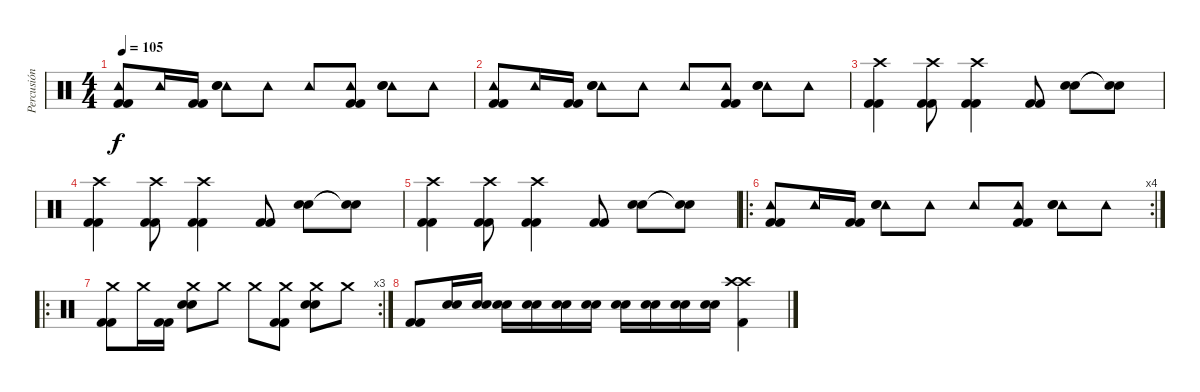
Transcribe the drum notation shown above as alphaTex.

\track ("Percusión" "Percusión") {instrument percussion}
\staff {score}
\articulation defaults
\ts (4 4)
\tempo 105
\clef neutral
\ks c
("Tambourine (hit)" "Kick (hit) 2" "Kick (hit) 2").8{dy f} "Tambourine (hit)".16 ("Kick (hit) 2" "Kick (hit) 2").16 ("Tambourine (hit)" "Electric Snare (hit)" "Electric Snare (hit)").8 "Tambourine (hit)".8 "Tambourine (hit)".8 ("Tambourine (hit)" "Kick (hit) 2" "Kick (hit) 2").8 ("Tambourine (hit)" "Electric Snare (hit)" "Electric Snare (hit)").8 "Tambourine (hit)".8 |
("Tambourine (hit)" "Kick (hit) 2" "Kick (hit) 2").8 "Tambourine (hit)".16 ("Kick (hit) 2" "Kick (hit) 2").16 ("Tambourine (hit)" "Electric Snare (hit)" "Electric Snare (hit)").8 "Tambourine (hit)".8 "Tambourine (hit)".8 ("Tambourine (hit)" "Kick (hit) 2" "Kick (hit) 2").8 ("Tambourine (hit)" "Electric Snare (hit)" "Electric Snare (hit)").8 "Tambourine (hit)".8 |
("Crash high (hit)" "Kick (hit) 2" "Kick (hit) 2").4 ("Crash high (hit)" "Kick (hit) 2" "Kick (hit) 2").8 ("Crash high (hit)" "Kick (hit) 2" "Kick (hit) 2").4 ("Kick (hit) 2" "Kick (hit) 2").8 ("Electric Snare (hit)" "Electric Snare (hit)").8 ("Snare (hit)"{t} "Snare (hit)"{t}).8 |
("Crash high (hit)" "Kick (hit) 2" "Kick (hit) 2").4 ("Crash high (hit)" "Kick (hit) 2" "Kick (hit) 2").8 ("Crash high (hit)" "Kick (hit) 2" "Kick (hit) 2").4 ("Kick (hit) 2" "Kick (hit) 2").8 ("Electric Snare (hit)" "Electric Snare (hit)").8 ("Snare (hit)"{t} "Snare (hit)"{t}).8 |
("Crash high (hit)" "Kick (hit) 2" "Kick (hit) 2").4 ("Crash high (hit)" "Kick (hit) 2" "Kick (hit) 2").8 ("Crash high (hit)" "Kick (hit) 2" "Kick (hit) 2").4 ("Kick (hit) 2" "Kick (hit) 2").8 ("Electric Snare (hit)" "Electric Snare (hit)").8 ("Snare (hit)"{t} "Snare (hit)"{t}).8 |
\ro
\rc 4
("Tambourine (hit)" "Kick (hit) 2" "Kick (hit) 2").8 "Tambourine (hit)".16 ("Kick (hit) 2" "Kick (hit) 2").16 ("Tambourine (hit)" "Electric Snare (hit)" "Electric Snare (hit)").8 "Tambourine (hit)".8 "Tambourine (hit)".8 ("Tambourine (hit)" "Kick (hit) 2" "Kick (hit) 2").8 ("Tambourine (hit)" "Electric Snare (hit)" "Electric Snare (hit)").8 "Tambourine (hit)".8 |
\ro
\rc 3
("Crash medium (hit)" "Kick (hit) 2" "Kick (hit) 2").8 "Crash medium (hit)".16 ("Kick (hit) 2" "Kick (hit) 2").16 ("Crash medium (hit)" "Electric Snare (hit)" "Electric Snare (hit)").8 "Crash medium (hit)".8 "Crash medium (hit)".8 ("Crash medium (hit)" "Kick (hit) 2" "Kick (hit) 2").8 ("Crash medium (hit)" "Electric Snare (hit)" "Electric Snare (hit)").8 "Crash medium (hit)".8 |
("Kick (hit) 2" "Kick (hit) 2").8 ("Electric Snare (hit)" "Electric Snare (hit)").16 ("Electric Snare (hit)" "Electric Snare (hit)").16 ("Electric Snare (hit)" "Electric Snare (hit)").16 ("Electric Snare (hit)" "Electric Snare (hit)").16 ("Electric Snare (hit)" "Electric Snare (hit)").16 ("Electric Snare (hit)" "Electric Snare (hit)").16 ("Electric Snare (hit)" "Electric Snare (hit)").16 ("Electric Snare (hit)" "Electric Snare (hit)").16 ("Electric Snare (hit)" "Electric Snare (hit)").16 ("Electric Snare (hit)" "Electric Snare (hit)").16 ("Crash high (hit)" "Crash high (hit)" "Kick (hit) 2").4
